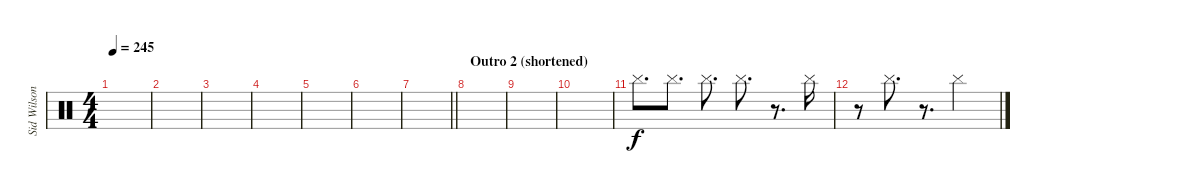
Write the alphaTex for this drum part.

\track ("Sid Wilson" "Sid Wilson") {instrument percussion}
\staff {score}
\articulation defaults
\ts (4 4)
\tempo 245
\clef neutral
\ks c
|
|
|
|
|
|
\barLineRight lightlight
|
\section ("" "Outro 2 (shortened)")
|
|
|
"Cymbal (hit)".8{d} "Cymbal (hit)".8{d} "Cymbal (hit)".8{d} "Cymbal (hit)".8{d} r.8{d} "Cymbal (hit)".16 |
r.8 "Cymbal (hit)".8{d} r.8{d} "Cymbal (hit)".2
